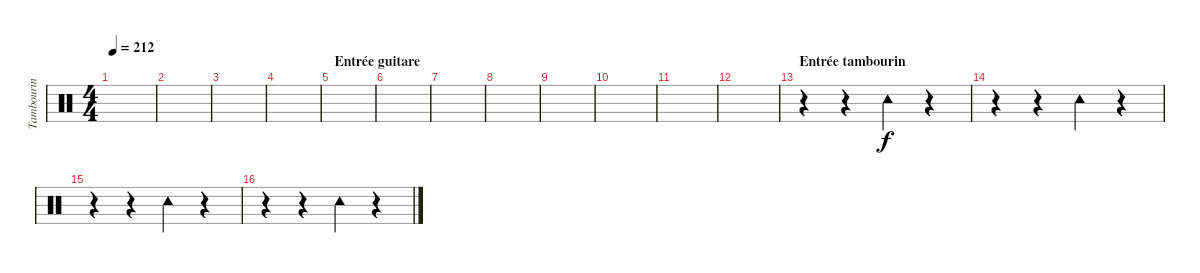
\track ("Tambourin" "Tambourin") {instrument percussion}
\staff {score}
\articulation defaults
\ts (4 4)
\tempo 212
\clef neutral
\ks c
|
|
|
|
\section ("" "Entrée guitare")
|
|
|
|
|
|
|
|
\section ("" "Entrée tambourin")
r.4 r.4 "Tambourine (hit)".4 r.4 |
r.4 r.4 "Tambourine (hit)".4 r.4 |
r.4 r.4 "Tambourine (hit)".4 r.4 |
r.4 r.4 "Tambourine (hit)".4 r.4
